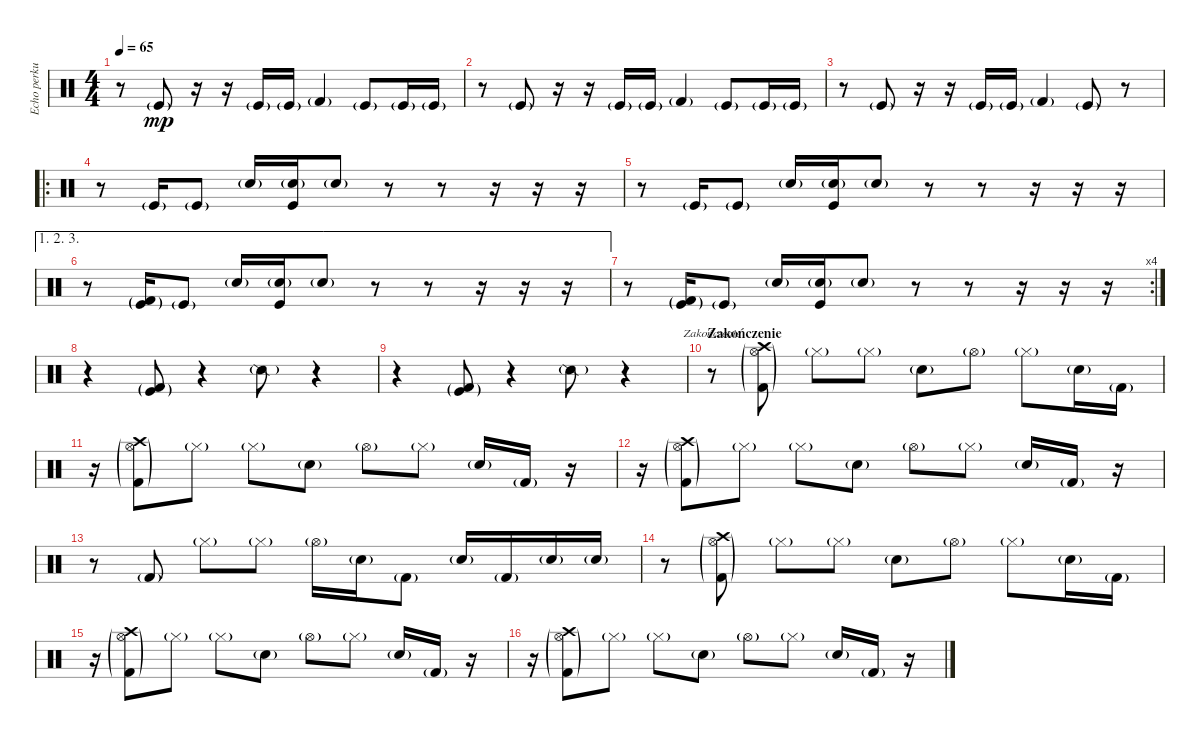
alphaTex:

\track ("Echo perkusji 2" "Echo perku") {instrument percussion}
\staff {score}
\articulation defaults
\chord ("Zakończenie")
\ts (4 4)
\tempo 65
\clef neutral
\ks c
r.8{dy mp} "Kick (hit)"{g}.8 r.16 r.16 "Kick (hit)"{g}.16 "Kick (hit)"{g}.16 "Kick (hit) 2"{g}.4 "Kick (hit)"{g}.8 "Kick (hit)"{g}.16 "Kick (hit)"{g}.16 |
r.8 "Kick (hit)"{g}.8 r.16 r.16 "Kick (hit)"{g}.16 "Kick (hit)"{g}.16 "Kick (hit) 2"{g}.4 "Kick (hit)"{g}.8 "Kick (hit)"{g}.16 "Kick (hit)"{g}.16 |
r.8 "Kick (hit)"{g}.8 r.16 r.16 "Kick (hit)"{g}.16 "Kick (hit)"{g}.16 "Kick (hit) 2"{g}.4 "Kick (hit)"{g}.8 r.8 |
\ro
r.8 "Kick (hit)"{g}.16 "Kick (hit)"{g}.8 "Snare (hit) 2"{g}.16 ("Snare (hit) 2"{g} "Kick (hit)").16{volume 11} "Snare (hit) 2"{g}.8{volume 9} r.8{volume 13} r.8 r.16 r.16 r.16 |
r.8 "Kick (hit)"{g}.16 "Kick (hit)"{g}.8 "Snare (hit) 2"{g}.16 ("Snare (hit) 2"{g} "Kick (hit)").16{volume 11} "Snare (hit) 2"{g}.8{volume 9} r.8{volume 13} r.8 r.16 r.16 r.16 |
\ae (1 2 3)
r.8 ("Kick (hit)"{g} "Kick (hit) 2"{g}).16 "Kick (hit)"{g}.8 "Snare (hit) 2"{g}.16 ("Snare (hit) 2"{g} "Kick (hit)").16{volume 11} "Snare (hit) 2"{g}.8{volume 10} r.8{volume 13} r.8 r.16 r.16 r.16 |
\rc 4
r.8 ("Kick (hit)"{g} "Kick (hit) 2"{g}).16 "Kick (hit)"{g}.8 "Snare (hit) 2"{g}.16 ("Snare (hit) 2"{g} "Kick (hit)").16{volume 11} "Snare (hit) 2"{g}.8{volume 9} r.8{volume 13} r.8 r.16 r.16 r.16 |
r.4 ("Kick (hit) 2"{g} "Kick (hit)"{g}).8 r.4 "Snare (side stick) 2"{g}.8 r.4 |
r.4 ("Kick (hit) 2"{g} "Kick (hit)"{g}).8 r.4 "Snare (side stick) 2"{g}.8 r.4 |
\section ("" "Zakończenie")
r.8{ch "Zakończenie"} ("Kick (hit) 2"{g} "Hi-Hat (open)"{g} "Crash high (hit)"{g}).8 "Hi-Hat (closed)"{g}.8 "Hi-Hat (closed)"{g}.8 "Snare (hit) 2"{g}.8 "Hi-Hat (open)"{g}.8 "Hi-Hat (closed)"{g}.8 "Snare (hit) 2"{g}.16 "Kick (hit) 2"{g}.16 |
r.16 ("Kick (hit) 2"{g} "Hi-Hat (open)"{g} "Crash high (hit)"{g}).8 "Hi-Hat (closed)"{g}.8 "Hi-Hat (closed)"{g}.8 "Snare (hit) 2"{g}.8 "Hi-Hat (open)"{g}.8 "Hi-Hat (closed)"{g}.8 "Snare (hit) 2"{g}.16 "Kick (hit) 2"{g}.16 r.16 |
r.16 ("Kick (hit) 2"{g} "Hi-Hat (open)"{g} "Crash high (hit)"{g}).8 "Hi-Hat (closed)"{g}.8 "Hi-Hat (closed)"{g}.8 "Snare (hit) 2"{g}.8 "Hi-Hat (open)"{g}.8 "Hi-Hat (closed)"{g}.8 "Snare (hit) 2"{g}.16 "Kick (hit) 2"{g}.16 r.16 |
r.8 "Kick (hit) 2"{g}.8 "Hi-Hat (closed)"{g}.8 "Hi-Hat (closed)"{g}.8 "Hi-Hat (open)"{g}.16 "Snare (hit) 2"{g}.16 "Kick (hit) 2"{g}.8 "Snare (hit) 2"{g}.16 "Kick (hit) 2"{g}.16 "Snare (hit) 2"{g}.16 "Snare (hit) 2"{g}.16 |
r.8 ("Kick (hit) 2"{g} "Hi-Hat (open)"{g} "Crash high (hit)"{g}).8 "Hi-Hat (closed)"{g}.8 "Hi-Hat (closed)"{g}.8 "Snare (hit) 2"{g}.8 "Hi-Hat (open)"{g}.8 "Hi-Hat (closed)"{g}.8 "Snare (hit) 2"{g}.16 "Kick (hit) 2"{g}.16 |
r.16 ("Kick (hit) 2"{g} "Hi-Hat (open)"{g} "Crash high (hit)"{g}).8 "Hi-Hat (closed)"{g}.8 "Hi-Hat (closed)"{g}.8 "Snare (hit) 2"{g}.8 "Hi-Hat (open)"{g}.8 "Hi-Hat (closed)"{g}.8 "Snare (hit) 2"{g}.16 "Kick (hit) 2"{g}.16 r.16 |
r.16 ("Kick (hit) 2"{g} "Hi-Hat (open)"{g} "Crash high (hit)"{g}).8 "Hi-Hat (closed)"{g}.8 "Hi-Hat (closed)"{g}.8 "Snare (hit) 2"{g}.8 "Hi-Hat (open)"{g}.8 "Hi-Hat (closed)"{g}.8 "Snare (hit) 2"{g}.16 "Kick (hit) 2"{g}.16 r.16
